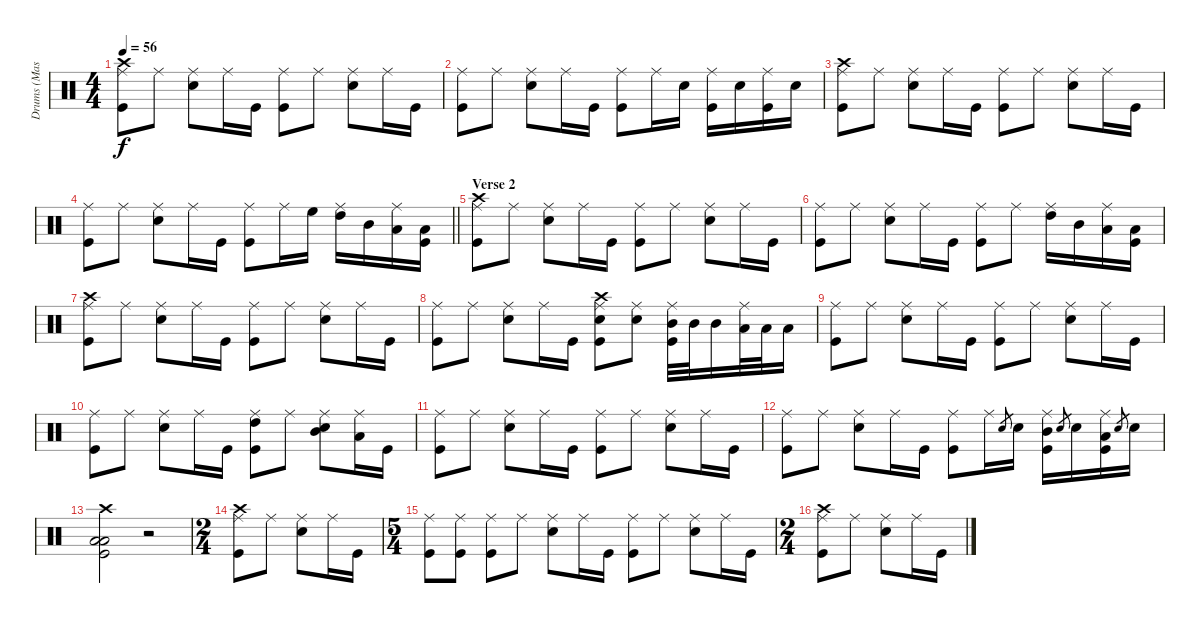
\track ("Drums (Mason)" "Drums (Mas") {instrument percussion}
\staff {score}
\articulation defaults
\ts (4 4)
\tempo 56
\clef neutral
\ks c
("Ride (middle)" "Crash high (hit)" "Kick (hit)").8{dy f} "Ride (middle)".8 ("Ride (middle)" "Snare (hit) 2").8 "Ride (middle)".16 "Kick (hit)".16 ("Ride (middle)" "Kick (hit)").8 "Ride (middle)".8 ("Ride (middle)" "Snare (hit) 2").8 "Ride (middle)".16 "Kick (hit)".16 |
("Ride (middle)" "Kick (hit)").8 "Ride (middle)".8 ("Ride (middle)" "Snare (hit) 2").8 "Ride (middle)".16 "Kick (hit)".16 ("Ride (middle)" "Kick (hit)").8 "Ride (middle)".16 "Snare (hit) 2".16 ("Ride (middle)" "Kick (hit)").16 "Snare (hit) 2".16 ("Ride (middle)" "Kick (hit)").16 "Snare (hit) 2".16 |
("Ride (middle)" "Crash high (hit)" "Kick (hit)").8 "Ride (middle)".8 ("Ride (middle)" "Snare (hit) 2").8 "Ride (middle)".16 "Kick (hit)".16 ("Ride (middle)" "Kick (hit)").8 "Ride (middle)".8 ("Ride (middle)" "Snare (hit) 2").8 "Ride (middle)".16 "Kick (hit)".16 |
\barLineRight lightlight
("Ride (middle)" "Kick (hit)").8 "Ride (middle)".8 ("Ride (middle)" "Snare (hit) 2").8 "Ride (middle)".16 "Kick (hit)".16 ("Ride (middle)" "Kick (hit)").8 "Ride (middle)".16 "High Floor Tom (hit)".16 ("Ride (middle)" "High Tom (hit)").16 "Mid Tom (hit)".16 ("Ride (middle)" "Low Tom (hit)").16 ("Low Floor Tom (hit)" "Kick (hit)").16 |
\section ("" "Verse 2")
("Ride (middle)" "Crash high (hit)" "Kick (hit)").8 "Ride (middle)".8 ("Ride (middle)" "Snare (hit) 2").8 "Ride (middle)".16 "Kick (hit)".16 ("Ride (middle)" "Kick (hit)").8 "Ride (middle)".8 ("Ride (middle)" "Snare (hit) 2").8 "Ride (middle)".16 "Kick (hit)".16 |
("Ride (middle)" "Kick (hit)").8 "Ride (middle)".8 ("Ride (middle)" "Snare (hit) 2").8 "Ride (middle)".16 "Kick (hit)".16 ("Ride (middle)" "Kick (hit)").8 "Ride (middle)".8 ("Ride (middle)" "High Tom (hit)").16 "Mid Tom (hit)".16 ("Ride (middle)" "Low Tom (hit)").16 ("Low Floor Tom (hit)" "Kick (hit)").16 |
("Ride (middle)" "Crash high (hit)" "Kick (hit)").8 "Ride (middle)".8 ("Ride (middle)" "Snare (hit) 2").8 "Ride (middle)".16 "Kick (hit)".16 ("Ride (middle)" "Kick (hit)").8 "Ride (middle)".8 ("Ride (middle)" "Snare (hit) 2").8 "Ride (middle)".16 "Kick (hit)".16 |
("Ride (middle)" "Kick (hit)").8 "Ride (middle)".8 ("Ride (middle)" "Snare (hit) 2").8 "Ride (middle)".16 "Kick (hit)".16 ("Ride (middle)" "Crash high (hit)" "Snare (hit) 2" "Kick (hit)").8 ("Ride (middle)" "Snare (hit) 2").8 ("Ride (middle)" "Mid Tom (hit)" "Kick (hit)").32 "Mid Tom (hit)".32 "Mid Tom (hit)".16 ("Ride (middle)" "Low Tom (hit)").32 "Low Tom (hit)".32 "Low Tom (hit)".16 |
("Ride (middle)" "Kick (hit)").8 "Ride (middle)".8 ("Ride (middle)" "Snare (hit) 2").8 "Ride (middle)".16 "Kick (hit)".16 ("Ride (middle)" "Kick (hit)").8 "Ride (middle)".8 ("Ride (middle)" "Snare (hit) 2").8 "Ride (middle)".16 "Kick (hit)".16 |
("Ride (middle)" "Kick (hit)").8 "Ride (middle)".8 ("Ride (middle)" "Snare (hit) 2").8 "Ride (middle)".16 "Kick (hit)".16 ("Ride (middle)" "High Tom (hit)" "Kick (hit)").8 "Ride (middle)".8 ("Ride (middle)" "Mid Tom (hit)" "Snare (hit) 2").8 ("Ride (middle)" "Low Tom (hit)").16 "Kick (hit)".16 |
("Ride (middle)" "Kick (hit)").8 "Ride (middle)".8 ("Ride (middle)" "Snare (hit) 2").8 "Ride (middle)".16 "Kick (hit)".16 ("Ride (middle)" "Kick (hit)").8 "Ride (middle)".8 ("Ride (middle)" "Snare (hit) 2").8 "Ride (middle)".16 "Kick (hit)".16 |
("Ride (middle)" "Kick (hit)").8 "Ride (middle)".8 ("Ride (middle)" "Snare (hit) 2").8 "Ride (middle)".16 "Kick (hit)".16 ("Ride (middle)" "Kick (hit)").8 "Ride (middle)".16 "Snare (hit) 2".8{gr} "Snare (hit) 2".16 ("Ride (middle)" "Mid Tom (hit)" "Kick (hit)").16 "Snare (hit) 2".8{gr} "Snare (hit) 2".16 ("Ride (middle)" "Low Tom (hit)" "Kick (hit)").16 "Snare (hit) 2".8{gr} "Snare (hit) 2".16 |
("Crash high (hit)" "Low Floor Tom (hit)" "Low Floor Tom (hit)" "Kick (hit)").2 r.2 |
\ts (2 4)
("Ride (middle)" "Crash high (hit)" "Kick (hit)").8 "Ride (middle)".8 ("Ride (middle)" "Snare (hit) 2").8 "Ride (middle)".16 "Kick (hit)".16 |
\ts (5 4)
("Ride (middle)" "Kick (hit)").8 ("Ride (middle)" "Kick (hit)").8 ("Ride (middle)" "Kick (hit)").8 "Ride (middle)".8 ("Ride (middle)" "Snare (hit) 2").8 "Ride (middle)".16 "Kick (hit)".16 ("Ride (middle)" "Kick (hit)").8 "Ride (middle)".8 ("Ride (middle)" "Snare (hit) 2").8 "Ride (middle)".16 "Kick (hit)".16 |
\ts (2 4)
("Ride (middle)" "Crash high (hit)" "Kick (hit)").8 "Ride (middle)".8 ("Ride (middle)" "Snare (hit) 2").8 "Ride (middle)".16 "Kick (hit)".16
